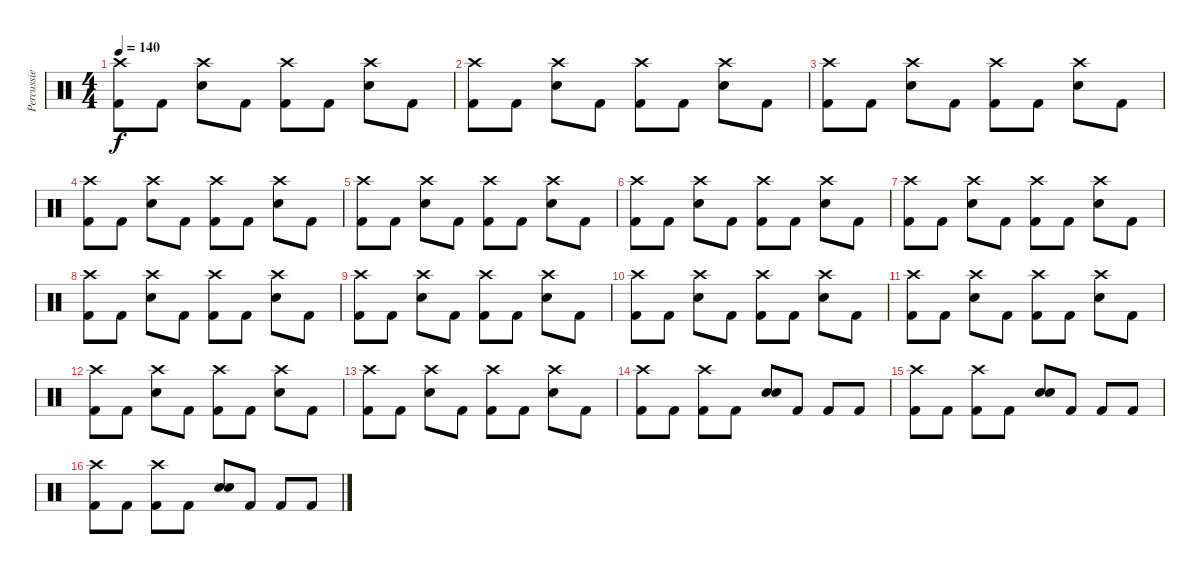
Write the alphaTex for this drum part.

\track ("Percussie" "Percussie") {instrument percussion}
\staff {score}
\articulation defaults
\ts (4 4)
\tempo 140
\clef neutral
\ks c
("Crash high (hit)" "Kick (hit) 2").8{dy f} "Kick (hit) 2".8 ("Crash high (hit)" "Snare (hit) 2").8 "Kick (hit) 2".8 ("Crash high (hit)" "Kick (hit) 2").8 "Kick (hit) 2".8 ("Crash high (hit)" "Snare (hit) 2").8 "Kick (hit) 2".8 |
("Crash high (hit)" "Kick (hit) 2").8 "Kick (hit) 2".8 ("Crash high (hit)" "Snare (hit) 2").8 "Kick (hit) 2".8 ("Crash high (hit)" "Kick (hit) 2").8 "Kick (hit) 2".8 ("Crash high (hit)" "Snare (hit) 2").8 "Kick (hit) 2".8 |
("Crash high (hit)" "Kick (hit) 2").8 "Kick (hit) 2".8 ("Crash high (hit)" "Snare (hit) 2").8 "Kick (hit) 2".8 ("Crash high (hit)" "Kick (hit) 2").8 "Kick (hit) 2".8 ("Crash high (hit)" "Snare (hit) 2").8 "Kick (hit) 2".8 |
("Crash high (hit)" "Kick (hit) 2").8 "Kick (hit) 2".8 ("Crash high (hit)" "Snare (hit) 2").8 "Kick (hit) 2".8 ("Crash high (hit)" "Kick (hit) 2").8 "Kick (hit) 2".8 ("Crash high (hit)" "Snare (hit) 2").8 "Kick (hit) 2".8 |
("Crash high (hit)" "Kick (hit) 2").8 "Kick (hit) 2".8 ("Crash high (hit)" "Snare (hit) 2").8 "Kick (hit) 2".8 ("Crash high (hit)" "Kick (hit) 2").8 "Kick (hit) 2".8 ("Crash high (hit)" "Snare (hit) 2").8 "Kick (hit) 2".8 |
("Crash high (hit)" "Kick (hit) 2").8 "Kick (hit) 2".8 ("Crash high (hit)" "Snare (hit) 2").8 "Kick (hit) 2".8 ("Crash high (hit)" "Kick (hit) 2").8 "Kick (hit) 2".8 ("Crash high (hit)" "Snare (hit) 2").8 "Kick (hit) 2".8 |
("Crash high (hit)" "Kick (hit) 2").8 "Kick (hit) 2".8 ("Crash high (hit)" "Snare (hit) 2").8 "Kick (hit) 2".8 ("Crash high (hit)" "Kick (hit) 2").8 "Kick (hit) 2".8 ("Crash high (hit)" "Snare (hit) 2").8 "Kick (hit) 2".8 |
("Crash high (hit)" "Kick (hit) 2").8 "Kick (hit) 2".8 ("Crash high (hit)" "Snare (hit) 2").8 "Kick (hit) 2".8 ("Crash high (hit)" "Kick (hit) 2").8 "Kick (hit) 2".8 ("Crash high (hit)" "Snare (hit) 2").8 "Kick (hit) 2".8 |
("Crash high (hit)" "Kick (hit) 2").8 "Kick (hit) 2".8 ("Crash high (hit)" "Snare (hit) 2").8 "Kick (hit) 2".8 ("Crash high (hit)" "Kick (hit) 2").8 "Kick (hit) 2".8 ("Crash high (hit)" "Snare (hit) 2").8 "Kick (hit) 2".8 |
("Crash high (hit)" "Kick (hit) 2").8 "Kick (hit) 2".8 ("Crash high (hit)" "Snare (hit) 2").8 "Kick (hit) 2".8 ("Crash high (hit)" "Kick (hit) 2").8 "Kick (hit) 2".8 ("Crash high (hit)" "Snare (hit) 2").8 "Kick (hit) 2".8 |
("Crash high (hit)" "Kick (hit) 2").8 "Kick (hit) 2".8 ("Crash high (hit)" "Snare (hit) 2").8 "Kick (hit) 2".8 ("Crash high (hit)" "Kick (hit) 2").8 "Kick (hit) 2".8 ("Crash high (hit)" "Snare (hit) 2").8 "Kick (hit) 2".8 |
("Crash high (hit)" "Kick (hit) 2").8 "Kick (hit) 2".8 ("Crash high (hit)" "Snare (hit) 2").8 "Kick (hit) 2".8 ("Crash high (hit)" "Kick (hit) 2").8 "Kick (hit) 2".8 ("Crash high (hit)" "Snare (hit) 2").8 "Kick (hit) 2".8 |
("Crash high (hit)" "Kick (hit) 2").8 "Kick (hit) 2".8 ("Crash high (hit)" "Snare (hit) 2").8 "Kick (hit) 2".8 ("Crash high (hit)" "Kick (hit) 2").8 "Kick (hit) 2".8 ("Crash high (hit)" "Snare (hit) 2").8 "Kick (hit) 2".8 |
("Crash high (hit)" "Kick (hit) 2").8 "Kick (hit) 2".8 ("Crash high (hit)" "Kick (hit) 2").8 "Kick (hit) 2".8 ("Snare (hit) 2" "Snare (hit) 2").8{bd 480} "Kick (hit) 2".8 "Kick (hit) 2".8 "Kick (hit) 2".8 |
("Crash high (hit)" "Kick (hit) 2").8 "Kick (hit) 2".8 ("Crash high (hit)" "Kick (hit) 2").8 "Kick (hit) 2".8 ("Snare (hit) 2" "Snare (hit) 2").8{bd 480} "Kick (hit) 2".8 "Kick (hit) 2".8 "Kick (hit) 2".8 |
("Crash high (hit)" "Kick (hit) 2").8 "Kick (hit) 2".8 ("Crash high (hit)" "Kick (hit) 2").8 "Kick (hit) 2".8 ("Snare (hit) 2" "Snare (hit) 2").8{bd 480} "Kick (hit) 2".8 "Kick (hit) 2".8 "Kick (hit) 2".8
